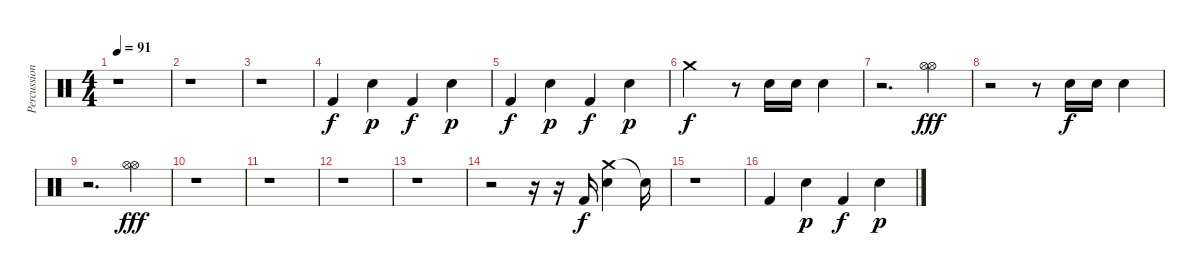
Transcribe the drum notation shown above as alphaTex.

\track ("Percussions" "Percussion") {instrument percussion}
\staff {score}
\articulation defaults
\ts (4 4)
\tempo 91
\clef neutral
\ks c
r.1{dy fff} |
r.1 |
r.1 |
"Kick (hit) 2".4{dy f} "Electric Snare (hit)".4{dy p} "Kick (hit) 2".4{dy f} "Electric Snare (hit)".4{dy p} |
"Kick (hit) 2".4{dy f} "Electric Snare (hit)".4{dy p} "Kick (hit) 2".4{dy f} "Electric Snare (hit)".4{dy p} |
"Crash medium (hit)".2{dy f} r.8 "Electric Snare (hit)".16 "Electric Snare (hit)".16 "Electric Snare (hit)".4 |
r.2{d} ("Hi-Hat (open)" "Hi-Hat (open)").4{dy fff} |
r.2 r.8 "Electric Snare (hit)".16{dy f} "Electric Snare (hit)".16 "Electric Snare (hit)".4 |
r.2{d} ("Hi-Hat (open)" "Hi-Hat (open)").4{dy fff} |
r.1 |
r.1 |
r.1 |
r.1 |
r.2 r.16 r.16 "Kick (hit) 2".16{dy f} ("Crash medium (hit)" "Electric Snare (hit)").4 "Snare (hit)"{t}.16 |
r.1 |
"Kick (hit) 2".4 "Electric Snare (hit)".4{dy p} "Kick (hit) 2".4{dy f} "Electric Snare (hit)".4{dy p}
